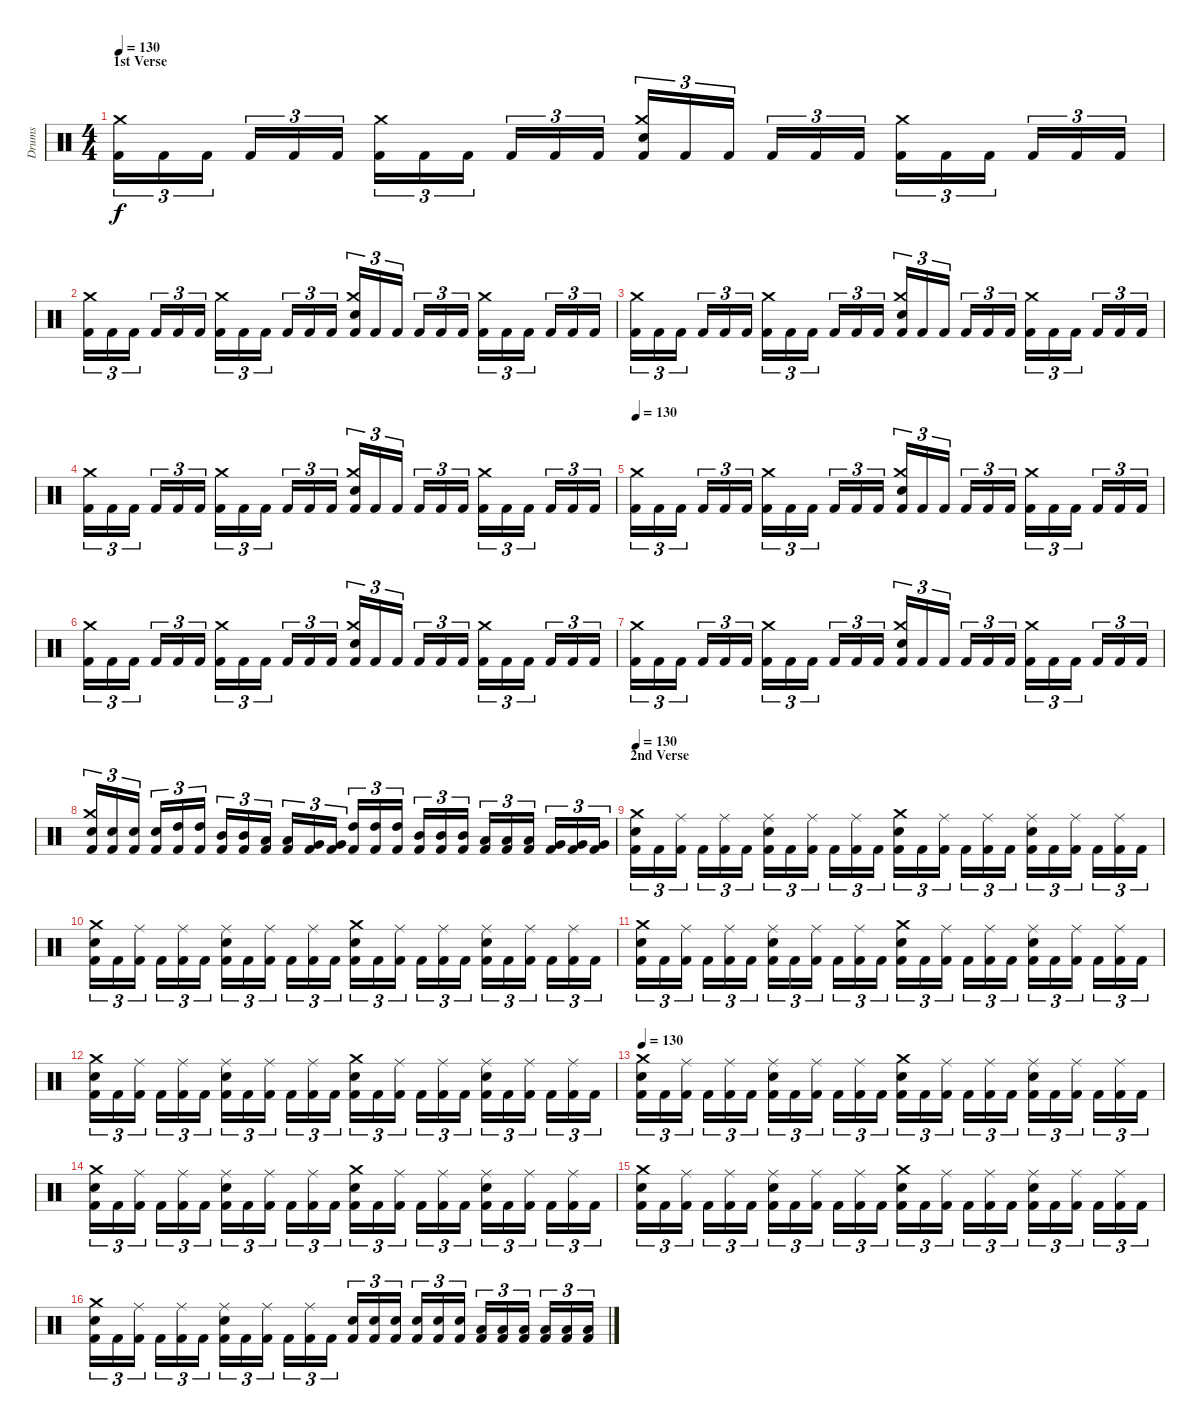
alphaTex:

\track ("Drums" "Drums") {instrument percussion}
\staff {score}
\articulation defaults
\ts (4 4)
\section ("" "1st Verse")
\tempo 130
\clef neutral
\ks c
("Kick (hit) 2" "Crash medium (hit)").16{tu (3 2) dy f} "Kick (hit) 2".16{tu (3 2)} "Kick (hit) 2".16{tu (3 2)} "Kick (hit) 2".16{tu (3 2)} "Kick (hit) 2".16{tu (3 2)} "Kick (hit) 2".16{tu (3 2)} ("Kick (hit) 2" "Crash medium (hit)").16{tu (3 2)} "Kick (hit) 2".16{tu (3 2)} "Kick (hit) 2".16{tu (3 2)} "Kick (hit) 2".16{tu (3 2)} "Kick (hit) 2".16{tu (3 2)} "Kick (hit) 2".16{tu (3 2)} ("Kick (hit) 2" "Electric Snare (hit)" "Crash medium (hit)").16{tu (3 2)} "Kick (hit) 2".16{tu (3 2)} "Kick (hit) 2".16{tu (3 2)} "Kick (hit) 2".16{tu (3 2)} "Kick (hit) 2".16{tu (3 2)} "Kick (hit) 2".16{tu (3 2)} ("Kick (hit) 2" "Crash medium (hit)").16{tu (3 2)} "Kick (hit) 2".16{tu (3 2)} "Kick (hit) 2".16{tu (3 2)} "Kick (hit) 2".16{tu (3 2)} "Kick (hit) 2".16{tu (3 2)} "Kick (hit) 2".16{tu (3 2)} |
("Kick (hit) 2" "Crash medium (hit)").16{tu (3 2)} "Kick (hit) 2".16{tu (3 2)} "Kick (hit) 2".16{tu (3 2)} "Kick (hit) 2".16{tu (3 2)} "Kick (hit) 2".16{tu (3 2)} "Kick (hit) 2".16{tu (3 2)} ("Kick (hit) 2" "Crash medium (hit)").16{tu (3 2)} "Kick (hit) 2".16{tu (3 2)} "Kick (hit) 2".16{tu (3 2)} "Kick (hit) 2".16{tu (3 2)} "Kick (hit) 2".16{tu (3 2)} "Kick (hit) 2".16{tu (3 2)} ("Kick (hit) 2" "Electric Snare (hit)" "Crash medium (hit)").16{tu (3 2)} "Kick (hit) 2".16{tu (3 2)} "Kick (hit) 2".16{tu (3 2)} "Kick (hit) 2".16{tu (3 2)} "Kick (hit) 2".16{tu (3 2)} "Kick (hit) 2".16{tu (3 2)} ("Kick (hit) 2" "Crash medium (hit)").16{tu (3 2)} "Kick (hit) 2".16{tu (3 2)} "Kick (hit) 2".16{tu (3 2)} "Kick (hit) 2".16{tu (3 2)} "Kick (hit) 2".16{tu (3 2)} "Kick (hit) 2".16{tu (3 2)} |
("Kick (hit) 2" "Crash medium (hit)").16{tu (3 2)} "Kick (hit) 2".16{tu (3 2)} "Kick (hit) 2".16{tu (3 2)} "Kick (hit) 2".16{tu (3 2)} "Kick (hit) 2".16{tu (3 2)} "Kick (hit) 2".16{tu (3 2)} ("Kick (hit) 2" "Crash medium (hit)").16{tu (3 2)} "Kick (hit) 2".16{tu (3 2)} "Kick (hit) 2".16{tu (3 2)} "Kick (hit) 2".16{tu (3 2)} "Kick (hit) 2".16{tu (3 2)} "Kick (hit) 2".16{tu (3 2)} ("Kick (hit) 2" "Electric Snare (hit)" "Crash medium (hit)").16{tu (3 2)} "Kick (hit) 2".16{tu (3 2)} "Kick (hit) 2".16{tu (3 2)} "Kick (hit) 2".16{tu (3 2)} "Kick (hit) 2".16{tu (3 2)} "Kick (hit) 2".16{tu (3 2)} ("Kick (hit) 2" "Crash medium (hit)").16{tu (3 2)} "Kick (hit) 2".16{tu (3 2)} "Kick (hit) 2".16{tu (3 2)} "Kick (hit) 2".16{tu (3 2)} "Kick (hit) 2".16{tu (3 2)} "Kick (hit) 2".16{tu (3 2)} |
("Kick (hit) 2" "Crash medium (hit)").16{tu (3 2)} "Kick (hit) 2".16{tu (3 2)} "Kick (hit) 2".16{tu (3 2)} "Kick (hit) 2".16{tu (3 2)} "Kick (hit) 2".16{tu (3 2)} "Kick (hit) 2".16{tu (3 2)} ("Kick (hit) 2" "Crash medium (hit)").16{tu (3 2)} "Kick (hit) 2".16{tu (3 2)} "Kick (hit) 2".16{tu (3 2)} "Kick (hit) 2".16{tu (3 2)} "Kick (hit) 2".16{tu (3 2)} "Kick (hit) 2".16{tu (3 2)} ("Kick (hit) 2" "Electric Snare (hit)" "Crash medium (hit)").16{tu (3 2)} "Kick (hit) 2".16{tu (3 2)} "Kick (hit) 2".16{tu (3 2)} "Kick (hit) 2".16{tu (3 2)} "Kick (hit) 2".16{tu (3 2)} "Kick (hit) 2".16{tu (3 2)} ("Kick (hit) 2" "Crash medium (hit)").16{tu (3 2)} "Kick (hit) 2".16{tu (3 2)} "Kick (hit) 2".16{tu (3 2)} "Kick (hit) 2".16{tu (3 2)} "Kick (hit) 2".16{tu (3 2)} "Kick (hit) 2".16{tu (3 2)} |
\tempo 130
("Kick (hit) 2" "Crash medium (hit)").16{tu (3 2)} "Kick (hit) 2".16{tu (3 2)} "Kick (hit) 2".16{tu (3 2)} "Kick (hit) 2".16{tu (3 2)} "Kick (hit) 2".16{tu (3 2)} "Kick (hit) 2".16{tu (3 2)} ("Kick (hit) 2" "Crash medium (hit)").16{tu (3 2)} "Kick (hit) 2".16{tu (3 2)} "Kick (hit) 2".16{tu (3 2)} "Kick (hit) 2".16{tu (3 2)} "Kick (hit) 2".16{tu (3 2)} "Kick (hit) 2".16{tu (3 2)} ("Kick (hit) 2" "Electric Snare (hit)" "Crash medium (hit)").16{tu (3 2)} "Kick (hit) 2".16{tu (3 2)} "Kick (hit) 2".16{tu (3 2)} "Kick (hit) 2".16{tu (3 2)} "Kick (hit) 2".16{tu (3 2)} "Kick (hit) 2".16{tu (3 2)} ("Kick (hit) 2" "Crash medium (hit)").16{tu (3 2)} "Kick (hit) 2".16{tu (3 2)} "Kick (hit) 2".16{tu (3 2)} "Kick (hit) 2".16{tu (3 2)} "Kick (hit) 2".16{tu (3 2)} "Kick (hit) 2".16{tu (3 2)} |
("Kick (hit) 2" "Crash medium (hit)").16{tu (3 2)} "Kick (hit) 2".16{tu (3 2)} "Kick (hit) 2".16{tu (3 2)} "Kick (hit) 2".16{tu (3 2)} "Kick (hit) 2".16{tu (3 2)} "Kick (hit) 2".16{tu (3 2)} ("Kick (hit) 2" "Crash medium (hit)").16{tu (3 2)} "Kick (hit) 2".16{tu (3 2)} "Kick (hit) 2".16{tu (3 2)} "Kick (hit) 2".16{tu (3 2)} "Kick (hit) 2".16{tu (3 2)} "Kick (hit) 2".16{tu (3 2)} ("Kick (hit) 2" "Electric Snare (hit)" "Crash medium (hit)").16{tu (3 2)} "Kick (hit) 2".16{tu (3 2)} "Kick (hit) 2".16{tu (3 2)} "Kick (hit) 2".16{tu (3 2)} "Kick (hit) 2".16{tu (3 2)} "Kick (hit) 2".16{tu (3 2)} ("Kick (hit) 2" "Crash medium (hit)").16{tu (3 2)} "Kick (hit) 2".16{tu (3 2)} "Kick (hit) 2".16{tu (3 2)} "Kick (hit) 2".16{tu (3 2)} "Kick (hit) 2".16{tu (3 2)} "Kick (hit) 2".16{tu (3 2)} |
("Kick (hit) 2" "Crash medium (hit)").16{tu (3 2)} "Kick (hit) 2".16{tu (3 2)} "Kick (hit) 2".16{tu (3 2)} "Kick (hit) 2".16{tu (3 2)} "Kick (hit) 2".16{tu (3 2)} "Kick (hit) 2".16{tu (3 2)} ("Kick (hit) 2" "Crash medium (hit)").16{tu (3 2)} "Kick (hit) 2".16{tu (3 2)} "Kick (hit) 2".16{tu (3 2)} "Kick (hit) 2".16{tu (3 2)} "Kick (hit) 2".16{tu (3 2)} "Kick (hit) 2".16{tu (3 2)} ("Kick (hit) 2" "Electric Snare (hit)" "Crash medium (hit)").16{tu (3 2)} "Kick (hit) 2".16{tu (3 2)} "Kick (hit) 2".16{tu (3 2)} "Kick (hit) 2".16{tu (3 2)} "Kick (hit) 2".16{tu (3 2)} "Kick (hit) 2".16{tu (3 2)} ("Kick (hit) 2" "Crash medium (hit)").16{tu (3 2)} "Kick (hit) 2".16{tu (3 2)} "Kick (hit) 2".16{tu (3 2)} "Kick (hit) 2".16{tu (3 2)} "Kick (hit) 2".16{tu (3 2)} "Kick (hit) 2".16{tu (3 2)} |
("Kick (hit) 2" "Electric Snare (hit)" "Crash medium (hit)").16{tu (3 2)} ("Kick (hit) 2" "Electric Snare (hit)").16{tu (3 2)} ("Kick (hit) 2" "Electric Snare (hit)").16{tu (3 2)} ("Kick (hit) 2" "Electric Snare (hit)").16{tu (3 2)} ("Kick (hit) 2" "High Tom (hit)").16{tu (3 2)} ("Kick (hit) 2" "High Tom (hit)").16{tu (3 2)} ("Kick (hit) 2" "Mid Tom (hit)").16{tu (3 2)} ("Kick (hit) 2" "Mid Tom (hit)").16{tu (3 2)} ("Kick (hit) 2" "Low Tom (hit)").16{tu (3 2)} ("Kick (hit) 2" "Low Tom (hit)").16{tu (3 2)} ("Kick (hit) 2" "Very Low Tom (hit)").16{tu (3 2)} ("Kick (hit) 2" "Very Low Tom (hit)").16{tu (3 2)} ("Kick (hit) 2" "High Tom (hit)").16{tu (3 2)} ("Kick (hit) 2" "High Tom (hit)").16{tu (3 2)} ("Kick (hit) 2" "High Tom (hit)").16{tu (3 2)} ("Kick (hit) 2" "Mid Tom (hit)").16{tu (3 2)} ("Kick (hit) 2" "Mid Tom (hit)").16{tu (3 2)} ("Kick (hit) 2" "Mid Tom (hit)").16{tu (3 2)} ("Kick (hit) 2" "Low Tom (hit)").16{tu (3 2)} ("Kick (hit) 2" "Low Tom (hit)").16{tu (3 2)} ("Kick (hit) 2" "Low Tom (hit)").16{tu (3 2)} ("Kick (hit) 2" "Very Low Tom (hit)").16{tu (3 2)} ("Kick (hit) 2" "Very Low Tom (hit)").16{tu (3 2)} ("Kick (hit) 2" "Very Low Tom (hit)").16{tu (3 2)} |
\section ("" "2nd Verse")
\tempo 130
("Kick (hit) 2" "Electric Snare (hit)" "Crash medium (hit)").16{tu (3 2)} "Kick (hit) 2".16{tu (3 2)} ("Kick (hit) 2" "Ride (middle)").16{tu (3 2)} "Kick (hit) 2".16{tu (3 2)} ("Kick (hit) 2" "Ride (middle)").16{tu (3 2)} "Kick (hit) 2".16{tu (3 2)} ("Kick (hit) 2" "Electric Snare (hit)" "Ride (middle)").16{tu (3 2)} "Kick (hit) 2".16{tu (3 2)} ("Kick (hit) 2" "Ride (middle)").16{tu (3 2)} "Kick (hit) 2".16{tu (3 2)} ("Kick (hit) 2" "Ride (middle)").16{tu (3 2)} "Kick (hit) 2".16{tu (3 2)} ("Kick (hit) 2" "Electric Snare (hit)" "Crash medium (hit)").16{tu (3 2)} "Kick (hit) 2".16{tu (3 2)} ("Kick (hit) 2" "Ride (middle)").16{tu (3 2)} "Kick (hit) 2".16{tu (3 2)} ("Kick (hit) 2" "Ride (middle)").16{tu (3 2)} "Kick (hit) 2".16{tu (3 2)} ("Kick (hit) 2" "Electric Snare (hit)" "Ride (middle)").16{tu (3 2)} "Kick (hit) 2".16{tu (3 2)} ("Kick (hit) 2" "Ride (middle)").16{tu (3 2)} "Kick (hit) 2".16{tu (3 2)} ("Kick (hit) 2" "Ride (middle)").16{tu (3 2)} "Kick (hit) 2".16{tu (3 2)} |
("Kick (hit) 2" "Electric Snare (hit)" "Crash medium (hit)").16{tu (3 2)} "Kick (hit) 2".16{tu (3 2)} ("Kick (hit) 2" "Ride (middle)").16{tu (3 2)} "Kick (hit) 2".16{tu (3 2)} ("Kick (hit) 2" "Ride (middle)").16{tu (3 2)} "Kick (hit) 2".16{tu (3 2)} ("Kick (hit) 2" "Electric Snare (hit)" "Ride (middle)").16{tu (3 2)} "Kick (hit) 2".16{tu (3 2)} ("Kick (hit) 2" "Ride (middle)").16{tu (3 2)} "Kick (hit) 2".16{tu (3 2)} ("Kick (hit) 2" "Ride (middle)").16{tu (3 2)} "Kick (hit) 2".16{tu (3 2)} ("Kick (hit) 2" "Electric Snare (hit)" "Crash medium (hit)").16{tu (3 2)} "Kick (hit) 2".16{tu (3 2)} ("Kick (hit) 2" "Ride (middle)").16{tu (3 2)} "Kick (hit) 2".16{tu (3 2)} ("Kick (hit) 2" "Ride (middle)").16{tu (3 2)} "Kick (hit) 2".16{tu (3 2)} ("Kick (hit) 2" "Electric Snare (hit)" "Ride (middle)").16{tu (3 2)} "Kick (hit) 2".16{tu (3 2)} ("Kick (hit) 2" "Ride (middle)").16{tu (3 2)} "Kick (hit) 2".16{tu (3 2)} ("Kick (hit) 2" "Ride (middle)").16{tu (3 2)} "Kick (hit) 2".16{tu (3 2)} |
("Kick (hit) 2" "Electric Snare (hit)" "Crash medium (hit)").16{tu (3 2)} "Kick (hit) 2".16{tu (3 2)} ("Kick (hit) 2" "Ride (middle)").16{tu (3 2)} "Kick (hit) 2".16{tu (3 2)} ("Kick (hit) 2" "Ride (middle)").16{tu (3 2)} "Kick (hit) 2".16{tu (3 2)} ("Kick (hit) 2" "Electric Snare (hit)" "Ride (middle)").16{tu (3 2)} "Kick (hit) 2".16{tu (3 2)} ("Kick (hit) 2" "Ride (middle)").16{tu (3 2)} "Kick (hit) 2".16{tu (3 2)} ("Kick (hit) 2" "Ride (middle)").16{tu (3 2)} "Kick (hit) 2".16{tu (3 2)} ("Kick (hit) 2" "Electric Snare (hit)" "Crash medium (hit)").16{tu (3 2)} "Kick (hit) 2".16{tu (3 2)} ("Kick (hit) 2" "Ride (middle)").16{tu (3 2)} "Kick (hit) 2".16{tu (3 2)} ("Kick (hit) 2" "Ride (middle)").16{tu (3 2)} "Kick (hit) 2".16{tu (3 2)} ("Kick (hit) 2" "Electric Snare (hit)" "Ride (middle)").16{tu (3 2)} "Kick (hit) 2".16{tu (3 2)} ("Kick (hit) 2" "Ride (middle)").16{tu (3 2)} "Kick (hit) 2".16{tu (3 2)} ("Kick (hit) 2" "Ride (middle)").16{tu (3 2)} "Kick (hit) 2".16{tu (3 2)} |
("Kick (hit) 2" "Electric Snare (hit)" "Crash medium (hit)").16{tu (3 2)} "Kick (hit) 2".16{tu (3 2)} ("Kick (hit) 2" "Ride (middle)").16{tu (3 2)} "Kick (hit) 2".16{tu (3 2)} ("Kick (hit) 2" "Ride (middle)").16{tu (3 2)} "Kick (hit) 2".16{tu (3 2)} ("Kick (hit) 2" "Electric Snare (hit)" "Ride (middle)").16{tu (3 2)} "Kick (hit) 2".16{tu (3 2)} ("Kick (hit) 2" "Ride (middle)").16{tu (3 2)} "Kick (hit) 2".16{tu (3 2)} ("Kick (hit) 2" "Ride (middle)").16{tu (3 2)} "Kick (hit) 2".16{tu (3 2)} ("Kick (hit) 2" "Electric Snare (hit)" "Crash medium (hit)").16{tu (3 2)} "Kick (hit) 2".16{tu (3 2)} ("Kick (hit) 2" "Ride (middle)").16{tu (3 2)} "Kick (hit) 2".16{tu (3 2)} ("Kick (hit) 2" "Ride (middle)").16{tu (3 2)} "Kick (hit) 2".16{tu (3 2)} ("Kick (hit) 2" "Electric Snare (hit)" "Ride (middle)").16{tu (3 2)} "Kick (hit) 2".16{tu (3 2)} ("Kick (hit) 2" "Ride (middle)").16{tu (3 2)} "Kick (hit) 2".16{tu (3 2)} ("Kick (hit) 2" "Ride (middle)").16{tu (3 2)} "Kick (hit) 2".16{tu (3 2)} |
\tempo 130
("Kick (hit) 2" "Electric Snare (hit)" "Crash medium (hit)").16{tu (3 2)} "Kick (hit) 2".16{tu (3 2)} ("Kick (hit) 2" "Ride (middle)").16{tu (3 2)} "Kick (hit) 2".16{tu (3 2)} ("Kick (hit) 2" "Ride (middle)").16{tu (3 2)} "Kick (hit) 2".16{tu (3 2)} ("Kick (hit) 2" "Electric Snare (hit)" "Ride (middle)").16{tu (3 2)} "Kick (hit) 2".16{tu (3 2)} ("Kick (hit) 2" "Ride (middle)").16{tu (3 2)} "Kick (hit) 2".16{tu (3 2)} ("Kick (hit) 2" "Ride (middle)").16{tu (3 2)} "Kick (hit) 2".16{tu (3 2)} ("Kick (hit) 2" "Electric Snare (hit)" "Crash medium (hit)").16{tu (3 2)} "Kick (hit) 2".16{tu (3 2)} ("Kick (hit) 2" "Ride (middle)").16{tu (3 2)} "Kick (hit) 2".16{tu (3 2)} ("Kick (hit) 2" "Ride (middle)").16{tu (3 2)} "Kick (hit) 2".16{tu (3 2)} ("Kick (hit) 2" "Electric Snare (hit)" "Ride (middle)").16{tu (3 2)} "Kick (hit) 2".16{tu (3 2)} ("Kick (hit) 2" "Ride (middle)").16{tu (3 2)} "Kick (hit) 2".16{tu (3 2)} ("Kick (hit) 2" "Ride (middle)").16{tu (3 2)} "Kick (hit) 2".16{tu (3 2)} |
("Kick (hit) 2" "Electric Snare (hit)" "Crash medium (hit)").16{tu (3 2)} "Kick (hit) 2".16{tu (3 2)} ("Kick (hit) 2" "Ride (middle)").16{tu (3 2)} "Kick (hit) 2".16{tu (3 2)} ("Kick (hit) 2" "Ride (middle)").16{tu (3 2)} "Kick (hit) 2".16{tu (3 2)} ("Kick (hit) 2" "Electric Snare (hit)" "Ride (middle)").16{tu (3 2)} "Kick (hit) 2".16{tu (3 2)} ("Kick (hit) 2" "Ride (middle)").16{tu (3 2)} "Kick (hit) 2".16{tu (3 2)} ("Kick (hit) 2" "Ride (middle)").16{tu (3 2)} "Kick (hit) 2".16{tu (3 2)} ("Kick (hit) 2" "Electric Snare (hit)" "Crash medium (hit)").16{tu (3 2)} "Kick (hit) 2".16{tu (3 2)} ("Kick (hit) 2" "Ride (middle)").16{tu (3 2)} "Kick (hit) 2".16{tu (3 2)} ("Kick (hit) 2" "Ride (middle)").16{tu (3 2)} "Kick (hit) 2".16{tu (3 2)} ("Kick (hit) 2" "Electric Snare (hit)" "Ride (middle)").16{tu (3 2)} "Kick (hit) 2".16{tu (3 2)} ("Kick (hit) 2" "Ride (middle)").16{tu (3 2)} "Kick (hit) 2".16{tu (3 2)} ("Kick (hit) 2" "Ride (middle)").16{tu (3 2)} "Kick (hit) 2".16{tu (3 2)} |
("Kick (hit) 2" "Electric Snare (hit)" "Crash medium (hit)").16{tu (3 2)} "Kick (hit) 2".16{tu (3 2)} ("Kick (hit) 2" "Ride (middle)").16{tu (3 2)} "Kick (hit) 2".16{tu (3 2)} ("Kick (hit) 2" "Ride (middle)").16{tu (3 2)} "Kick (hit) 2".16{tu (3 2)} ("Kick (hit) 2" "Electric Snare (hit)" "Ride (middle)").16{tu (3 2)} "Kick (hit) 2".16{tu (3 2)} ("Kick (hit) 2" "Ride (middle)").16{tu (3 2)} "Kick (hit) 2".16{tu (3 2)} ("Kick (hit) 2" "Ride (middle)").16{tu (3 2)} "Kick (hit) 2".16{tu (3 2)} ("Kick (hit) 2" "Electric Snare (hit)" "Crash medium (hit)").16{tu (3 2)} "Kick (hit) 2".16{tu (3 2)} ("Kick (hit) 2" "Ride (middle)").16{tu (3 2)} "Kick (hit) 2".16{tu (3 2)} ("Kick (hit) 2" "Ride (middle)").16{tu (3 2)} "Kick (hit) 2".16{tu (3 2)} ("Kick (hit) 2" "Electric Snare (hit)" "Ride (middle)").16{tu (3 2)} "Kick (hit) 2".16{tu (3 2)} ("Kick (hit) 2" "Ride (middle)").16{tu (3 2)} "Kick (hit) 2".16{tu (3 2)} ("Kick (hit) 2" "Ride (middle)").16{tu (3 2)} "Kick (hit) 2".16{tu (3 2)} |
("Kick (hit) 2" "Electric Snare (hit)" "Crash medium (hit)").16{tu (3 2)} "Kick (hit) 2".16{tu (3 2)} ("Kick (hit) 2" "Ride (middle)").16{tu (3 2)} "Kick (hit) 2".16{tu (3 2)} ("Kick (hit) 2" "Ride (middle)").16{tu (3 2)} "Kick (hit) 2".16{tu (3 2)} ("Kick (hit) 2" "Electric Snare (hit)" "Ride (middle)").16{tu (3 2)} "Kick (hit) 2".16{tu (3 2)} ("Kick (hit) 2" "Ride (middle)").16{tu (3 2)} "Kick (hit) 2".16{tu (3 2)} ("Kick (hit) 2" "Ride (middle)").16{tu (3 2)} "Kick (hit) 2".16{tu (3 2)} ("Kick (hit) 2" "Electric Snare (hit)").16{tu (3 2)} ("Kick (hit) 2" "Electric Snare (hit)").16{tu (3 2)} ("Kick (hit) 2" "Electric Snare (hit)").16{tu (3 2)} ("Kick (hit) 2" "Electric Snare (hit)").16{tu (3 2)} ("Kick (hit) 2" "Electric Snare (hit)").16{tu (3 2)} ("Kick (hit) 2" "Electric Snare (hit)").16{tu (3 2)} ("Kick (hit) 2" "Low Tom (hit)").16{tu (3 2)} ("Kick (hit) 2" "Low Tom (hit)").16{tu (3 2)} ("Kick (hit) 2" "Low Tom (hit)").16{tu (3 2)} ("Kick (hit) 2" "Low Tom (hit)").16{tu (3 2)} ("Kick (hit) 2" "Low Tom (hit)").16{tu (3 2)} ("Kick (hit) 2" "Low Tom (hit)").16{tu (3 2)}
